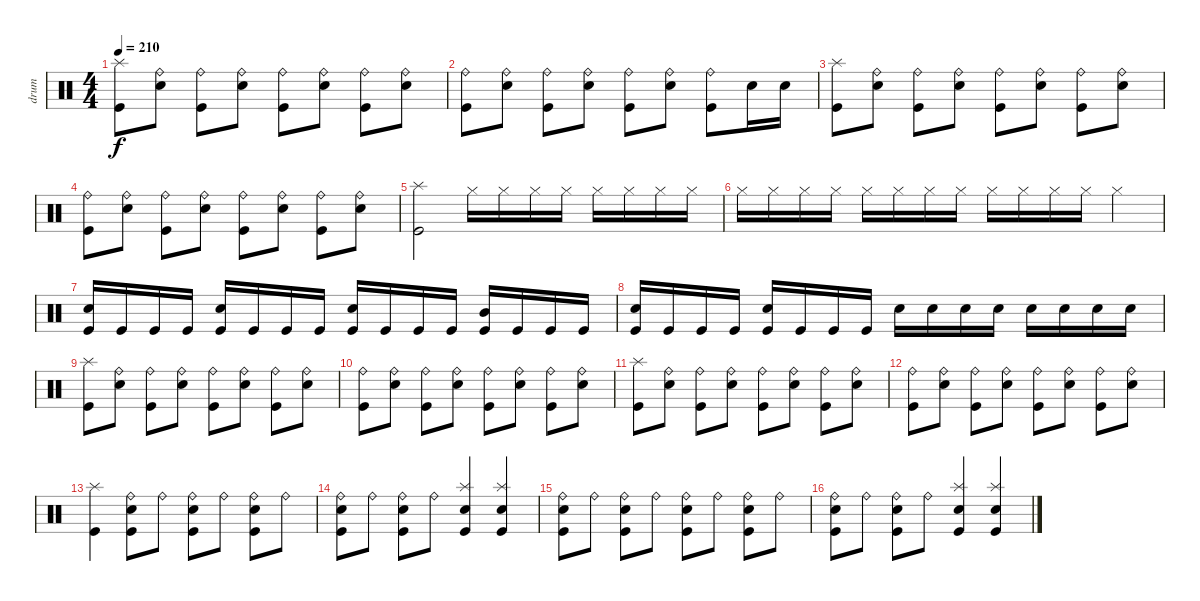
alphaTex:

\track ("drum" "drum") {instrument percussion}
\staff {score}
\articulation defaults
\ts (4 4)
\tempo 210
\clef neutral
\ks c
("Kick (hit)" "Splash (hit)").8{dy f} ("Electric Snare (hit)" "Ride (bell)").8 ("Kick (hit)" "Ride (bell)").8 ("Electric Snare (hit)" "Ride (bell)").8 ("Kick (hit)" "Ride (bell)").8 ("Electric Snare (hit)" "Ride (bell)").8 ("Kick (hit)" "Ride (bell)").8 ("Electric Snare (hit)" "Ride (bell)").8 |
("Kick (hit)" "Ride (bell)").8 ("Electric Snare (hit)" "Ride (bell)").8 ("Kick (hit)" "Ride (bell)").8 ("Electric Snare (hit)" "Ride (bell)").8 ("Kick (hit)" "Ride (bell)").8 ("Electric Snare (hit)" "Ride (bell)").8 ("Kick (hit)" "Ride (bell)").8 "Electric Snare (hit)".16 "Electric Snare (hit)".16 |
("Kick (hit)" "Splash (hit)").8 ("Electric Snare (hit)" "Ride (bell)").8 ("Kick (hit)" "Ride (bell)").8 ("Electric Snare (hit)" "Ride (bell)").8 ("Kick (hit)" "Ride (bell)").8 ("Electric Snare (hit)" "Ride (bell)").8 ("Kick (hit)" "Ride (bell)").8 ("Electric Snare (hit)" "Ride (bell)").8 |
("Kick (hit)" "Ride (bell)").8 ("Electric Snare (hit)" "Ride (bell)").8 ("Kick (hit)" "Ride (bell)").8 ("Electric Snare (hit)" "Ride (bell)").8 ("Kick (hit)" "Ride (bell)").8 ("Electric Snare (hit)" "Ride (bell)").8 ("Kick (hit)" "Ride (bell)").8 ("Electric Snare (hit)" "Ride (bell)").8 |
("Kick (hit)" "Splash (hit)").2 "Hi-Hat (closed)".16 "Hi-Hat (closed)".16 "Hi-Hat (closed)".16 "Hi-Hat (closed)".16 "Hi-Hat (closed)".16 "Hi-Hat (closed)".16 "Hi-Hat (closed)".16 "Hi-Hat (closed)".16 |
"Hi-Hat (closed)".16 "Hi-Hat (closed)".16 "Hi-Hat (closed)".16 "Hi-Hat (closed)".16 "Hi-Hat (closed)".16 "Hi-Hat (closed)".16 "Hi-Hat (closed)".16 "Hi-Hat (closed)".16 "Hi-Hat (closed)".16 "Hi-Hat (closed)".16 "Hi-Hat (closed)".16 "Hi-Hat (closed)".16 "Hi-Hat (closed)".4 |
("Kick (hit)" "Electric Snare (hit)").16 "Kick (hit)".16 "Kick (hit)".16 "Kick (hit)".16 ("Kick (hit)" "Electric Snare (hit)").16 "Kick (hit)".16 "Kick (hit)".16 "Kick (hit)".16 ("Kick (hit)" "Electric Snare (hit)").16 "Kick (hit)".16 "Kick (hit)".16 "Kick (hit)".16 ("Kick (hit)" "Mid Tom (hit)").16 "Kick (hit)".16 "Kick (hit)".16 "Kick (hit)".16 |
("Kick (hit)" "Electric Snare (hit)").16 "Kick (hit)".16 "Kick (hit)".16 "Kick (hit)".16 ("Kick (hit)" "Electric Snare (hit)").16 "Kick (hit)".16 "Kick (hit)".16 "Kick (hit)".16 "Electric Snare (hit)".16 "Electric Snare (hit)".16 "Electric Snare (hit)".16 "Electric Snare (hit)".16 "Electric Snare (hit)".16 "Electric Snare (hit)".16 "Electric Snare (hit)".16 "Electric Snare (hit)".16 |
("Kick (hit)" "Splash (hit)").8 ("Electric Snare (hit)" "Ride (bell)").8 ("Kick (hit)" "Ride (bell)").8 ("Electric Snare (hit)" "Ride (bell)").8 ("Kick (hit)" "Ride (bell)").8 ("Electric Snare (hit)" "Ride (bell)").8 ("Kick (hit)" "Ride (bell)").8 ("Electric Snare (hit)" "Ride (bell)").8 |
("Kick (hit)" "Ride (bell)").8 ("Electric Snare (hit)" "Ride (bell)").8 ("Kick (hit)" "Ride (bell)").8 ("Electric Snare (hit)" "Ride (bell)").8 ("Kick (hit)" "Ride (bell)").8 ("Electric Snare (hit)" "Ride (bell)").8 ("Kick (hit)" "Ride (bell)").8 ("Electric Snare (hit)" "Ride (bell)").8 |
("Kick (hit)" "Splash (hit)").8 ("Electric Snare (hit)" "Ride (bell)").8 ("Kick (hit)" "Ride (bell)").8 ("Electric Snare (hit)" "Ride (bell)").8 ("Kick (hit)" "Ride (bell)").8 ("Electric Snare (hit)" "Ride (bell)").8 ("Kick (hit)" "Ride (bell)").8 ("Electric Snare (hit)" "Ride (bell)").8 |
("Kick (hit)" "Ride (bell)").8 ("Electric Snare (hit)" "Ride (bell)").8 ("Kick (hit)" "Ride (bell)").8 ("Electric Snare (hit)" "Ride (bell)").8 ("Kick (hit)" "Ride (bell)").8 ("Electric Snare (hit)" "Ride (bell)").8 ("Kick (hit)" "Ride (bell)").8 ("Electric Snare (hit)" "Ride (bell)").8 |
("Kick (hit)" "Splash (hit)").4 ("Kick (hit)" "Electric Snare (hit)" "Ride (bell)").8 "Ride (bell)".8 ("Kick (hit)" "Electric Snare (hit)" "Ride (bell)").8 "Ride (bell)".8 ("Kick (hit)" "Electric Snare (hit)" "Ride (bell)").8 "Ride (bell)".8 |
("Kick (hit)" "Electric Snare (hit)" "Ride (bell)").8 "Ride (bell)".8 ("Kick (hit)" "Electric Snare (hit)" "Ride (bell)").8 "Ride (bell)".8 ("Kick (hit)" "Electric Snare (hit)" "Splash (hit)").4 ("Kick (hit)" "Electric Snare (hit)" "Splash (hit)").4 |
("Kick (hit)" "Electric Snare (hit)" "Ride (bell)").8 "Ride (bell)".8 ("Kick (hit)" "Electric Snare (hit)" "Ride (bell)").8 "Ride (bell)".8 ("Kick (hit)" "Electric Snare (hit)" "Ride (bell)").8 "Ride (bell)".8 ("Kick (hit)" "Electric Snare (hit)" "Ride (bell)").8 "Ride (bell)".8 |
("Kick (hit)" "Electric Snare (hit)" "Ride (bell)").8 "Ride (bell)".8 ("Kick (hit)" "Electric Snare (hit)" "Ride (bell)").8 "Ride (bell)".8 ("Kick (hit)" "Electric Snare (hit)" "Splash (hit)").4 ("Kick (hit)" "Electric Snare (hit)" "Splash (hit)").4
